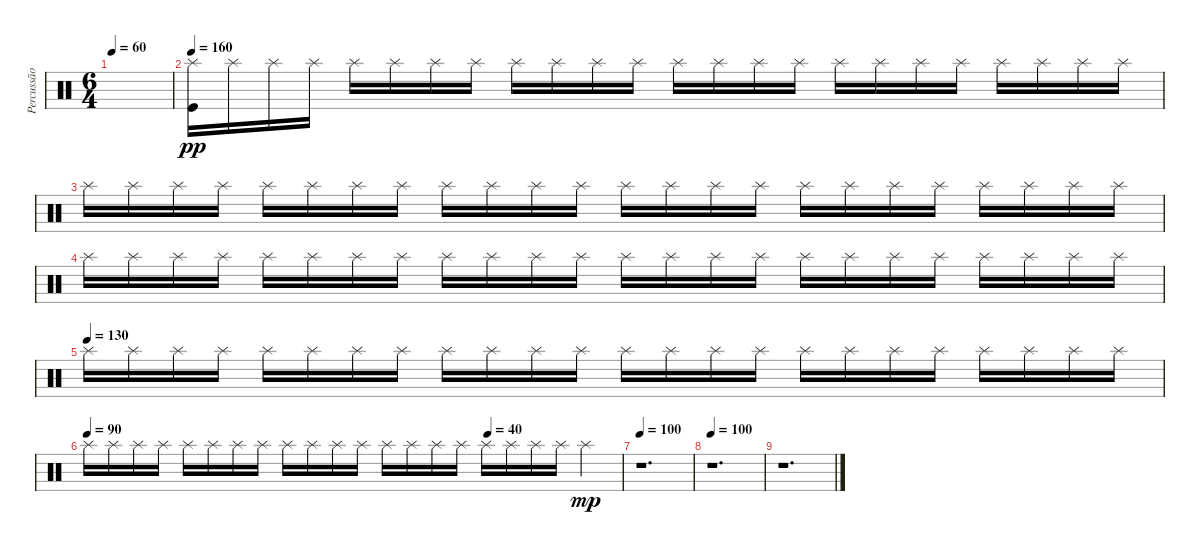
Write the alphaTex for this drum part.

\track ("Percussão" "Percussão") {instrument percussion}
\staff {score}
\articulation defaults
\ts (6 4)
\tempo 60
\clef neutral
\ks c
|
\tempo 160
("Splash (hit)" "Kick (hit)").16{dy pp} "Splash (hit)".16 "Splash (hit)".16 "Splash (hit)".16 "Splash (hit)".16 "Splash (hit)".16 "Splash (hit)".16 "Splash (hit)".16 "Splash (hit)".16 "Splash (hit)".16 "Splash (hit)".16 "Splash (hit)".16 "Splash (hit)".16 "Splash (hit)".16 "Splash (hit)".16 "Splash (hit)".16 "Splash (hit)".16 "Splash (hit)".16 "Splash (hit)".16 "Splash (hit)".16 "Splash (hit)".16 "Splash (hit)".16 "Splash (hit)".16 "Splash (hit)".16 |
"Splash (hit)".16 "Splash (hit)".16 "Splash (hit)".16 "Splash (hit)".16 "Splash (hit)".16 "Splash (hit)".16 "Splash (hit)".16 "Splash (hit)".16 "Splash (hit)".16 "Splash (hit)".16 "Splash (hit)".16 "Splash (hit)".16 "Splash (hit)".16 "Splash (hit)".16 "Splash (hit)".16 "Splash (hit)".16 "Splash (hit)".16 "Splash (hit)".16 "Splash (hit)".16 "Splash (hit)".16 "Splash (hit)".16 "Splash (hit)".16 "Splash (hit)".16 "Splash (hit)".16 |
"Splash (hit)".16 "Splash (hit)".16 "Splash (hit)".16 "Splash (hit)".16 "Splash (hit)".16 "Splash (hit)".16 "Splash (hit)".16 "Splash (hit)".16 "Splash (hit)".16 "Splash (hit)".16 "Splash (hit)".16 "Splash (hit)".16 "Splash (hit)".16 "Splash (hit)".16 "Splash (hit)".16 "Splash (hit)".16 "Splash (hit)".16 "Splash (hit)".16 "Splash (hit)".16 "Splash (hit)".16 "Splash (hit)".16 "Splash (hit)".16 "Splash (hit)".16 "Splash (hit)".16 |
\tempo (130)
"Splash (hit)".16 "Splash (hit)".16 "Splash (hit)".16 "Splash (hit)".16 "Splash (hit)".16 "Splash (hit)".16 "Splash (hit)".16 "Splash (hit)".16 "Splash (hit)".16 "Splash (hit)".16 "Splash (hit)".16 "Splash (hit)".16 "Splash (hit)".16 "Splash (hit)".16 "Splash (hit)".16 "Splash (hit)".16 "Splash (hit)".16 "Splash (hit)".16 "Splash (hit)".16 "Splash (hit)".16 "Splash (hit)".16 "Splash (hit)".16 "Splash (hit)".16 "Splash (hit)".16 |
\tempo 90
\tempo (40 0.75)
"Splash (hit)".16 "Splash (hit)".16 "Splash (hit)".16 "Splash (hit)".16 "Splash (hit)".16 "Splash (hit)".16 "Splash (hit)".16 "Splash (hit)".16 "Splash (hit)".16 "Splash (hit)".16 "Splash (hit)".16 "Splash (hit)".16 "Splash (hit)".16 "Splash (hit)".16 "Splash (hit)".16 "Splash (hit)".16 "Splash (hit)".16 "Splash (hit)".16 "Splash (hit)".16 "Splash (hit)".16 "Splash (hit)".4{dy mp} |
\tempo 100
r.1{d} |
\tempo 100
r.1{d} |
r.1{d}
